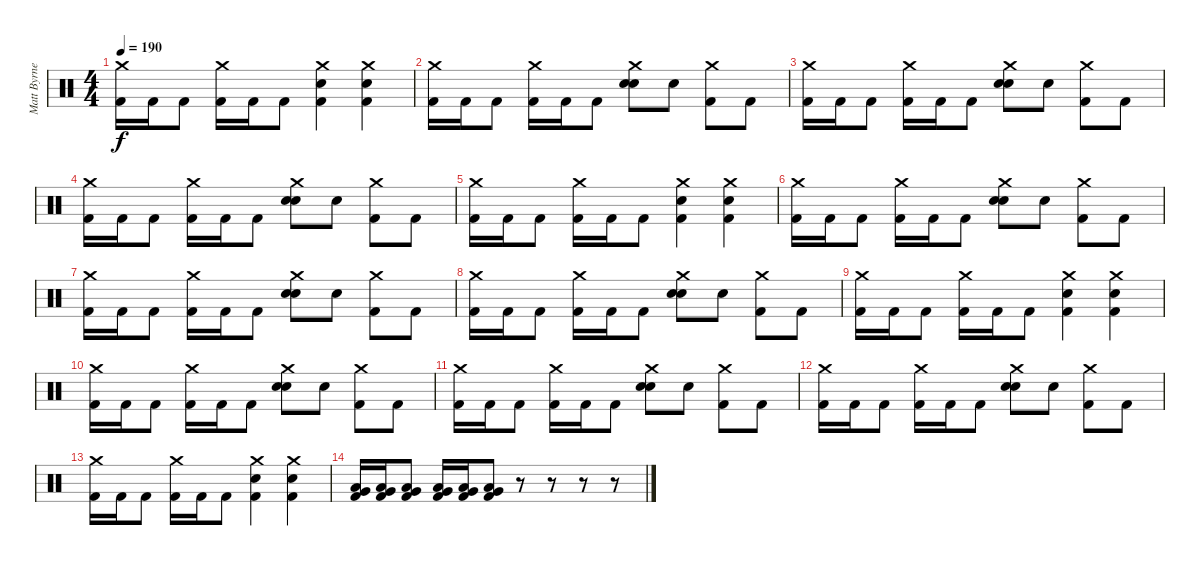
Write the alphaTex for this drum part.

\track ("Matt Byrne (Drums)" "Matt Byrne") {instrument percussion}
\staff {score}
\articulation defaults
\ts (4 4)
\tempo 190
\clef neutral
\ks c
("Crash medium (hit)" "Kick (hit) 2").16{dy f} "Kick (hit) 2".16 "Kick (hit) 2".8 ("Crash medium (hit)" "Kick (hit) 2").16 "Kick (hit) 2".16 "Kick (hit) 2".8 ("Crash medium (hit)" "Snare (hit) 2" "Kick (hit) 2").4 ("Crash medium (hit)" "Snare (hit) 2" "Kick (hit) 2").4 |
("Crash medium (hit)" "Kick (hit) 2").16 "Kick (hit) 2".16 "Kick (hit) 2".8 ("Crash medium (hit)" "Kick (hit) 2").16 "Kick (hit) 2".16 "Kick (hit) 2".8 ("Crash medium (hit)" "Snare (hit) 2" "Snare (hit)"{x}).8 "Snare (hit)"{x}.8 ("Crash medium (hit)" "Kick (hit) 2").8 "Kick (hit) 2".8 |
("Crash medium (hit)" "Kick (hit) 2").16 "Kick (hit) 2".16 "Kick (hit) 2".8 ("Crash medium (hit)" "Kick (hit) 2").16 "Kick (hit) 2".16 "Kick (hit) 2".8 ("Crash medium (hit)" "Snare (hit) 2" "Snare (hit)"{x}).8 "Snare (hit)"{x}.8 ("Crash medium (hit)" "Kick (hit) 2").8 "Kick (hit) 2".8 |
("Crash medium (hit)" "Kick (hit) 2").16 "Kick (hit) 2".16 "Kick (hit) 2".8 ("Crash medium (hit)" "Kick (hit) 2").16 "Kick (hit) 2".16 "Kick (hit) 2".8 ("Crash medium (hit)" "Snare (hit) 2" "Snare (hit)"{x}).8 "Snare (hit)"{x}.8 ("Crash medium (hit)" "Kick (hit) 2").8 "Kick (hit) 2".8 |
("Crash medium (hit)" "Kick (hit) 2").16 "Kick (hit) 2".16 "Kick (hit) 2".8 ("Crash medium (hit)" "Kick (hit) 2").16 "Kick (hit) 2".16 "Kick (hit) 2".8 ("Crash medium (hit)" "Snare (hit) 2" "Kick (hit) 2").4 ("Crash medium (hit)" "Snare (hit) 2" "Kick (hit) 2").4 |
("Crash medium (hit)" "Kick (hit) 2").16 "Kick (hit) 2".16 "Kick (hit) 2".8 ("Crash medium (hit)" "Kick (hit) 2").16 "Kick (hit) 2".16 "Kick (hit) 2".8 ("Crash medium (hit)" "Snare (hit) 2" "Snare (hit)"{x}).8 "Snare (hit)"{x}.8 ("Crash medium (hit)" "Kick (hit) 2").8 "Kick (hit) 2".8 |
("Crash medium (hit)" "Kick (hit) 2").16 "Kick (hit) 2".16 "Kick (hit) 2".8 ("Crash medium (hit)" "Kick (hit) 2").16 "Kick (hit) 2".16 "Kick (hit) 2".8 ("Crash medium (hit)" "Snare (hit) 2" "Snare (hit)"{x}).8 "Snare (hit)"{x}.8 ("Crash medium (hit)" "Kick (hit) 2").8 "Kick (hit) 2".8 |
("Crash medium (hit)" "Kick (hit) 2").16 "Kick (hit) 2".16 "Kick (hit) 2".8 ("Crash medium (hit)" "Kick (hit) 2").16 "Kick (hit) 2".16 "Kick (hit) 2".8 ("Crash medium (hit)" "Snare (hit) 2" "Snare (hit)"{x}).8 "Snare (hit)"{x}.8 ("Crash medium (hit)" "Kick (hit) 2").8 "Kick (hit) 2".8 |
("Crash medium (hit)" "Kick (hit) 2").16 "Kick (hit) 2".16 "Kick (hit) 2".8 ("Crash medium (hit)" "Kick (hit) 2").16 "Kick (hit) 2".16 "Kick (hit) 2".8 ("Crash medium (hit)" "Snare (hit) 2" "Kick (hit) 2").4 ("Crash medium (hit)" "Snare (hit) 2" "Kick (hit) 2").4 |
("Crash medium (hit)" "Kick (hit) 2").16 "Kick (hit) 2".16 "Kick (hit) 2".8 ("Crash medium (hit)" "Kick (hit) 2").16 "Kick (hit) 2".16 "Kick (hit) 2".8 ("Crash medium (hit)" "Snare (hit) 2" "Snare (hit)"{x}).8 "Snare (hit)"{x}.8 ("Crash medium (hit)" "Kick (hit) 2").8 "Kick (hit) 2".8 |
("Crash medium (hit)" "Kick (hit) 2").16 "Kick (hit) 2".16 "Kick (hit) 2".8 ("Crash medium (hit)" "Kick (hit) 2").16 "Kick (hit) 2".16 "Kick (hit) 2".8 ("Crash medium (hit)" "Snare (hit) 2" "Snare (hit)"{x}).8 "Snare (hit)"{x}.8 ("Crash medium (hit)" "Kick (hit) 2").8 "Kick (hit) 2".8 |
("Crash medium (hit)" "Kick (hit) 2").16 "Kick (hit) 2".16 "Kick (hit) 2".8 ("Crash medium (hit)" "Kick (hit) 2").16 "Kick (hit) 2".16 "Kick (hit) 2".8 ("Crash medium (hit)" "Snare (hit) 2" "Snare (hit)"{x}).8 "Snare (hit)"{x}.8 ("Crash medium (hit)" "Kick (hit) 2").8 "Kick (hit) 2".8 |
("Crash medium (hit)" "Kick (hit) 2").16 "Kick (hit) 2".16 "Kick (hit) 2".8 ("Crash medium (hit)" "Kick (hit) 2").16 "Kick (hit) 2".16 "Kick (hit) 2".8 ("Crash medium (hit)" "Snare (hit) 2" "Kick (hit) 2").4 ("Crash medium (hit)" "Snare (hit) 2" "Kick (hit) 2").4 |
("Very Low Tom (hit)" "Low Tom (hit)" "Kick (hit) 2").16 ("Very Low Tom (hit)" "Low Tom (hit)" "Kick (hit) 2").16 ("Very Low Tom (hit)" "Low Tom (hit)" "Kick (hit) 2").8 ("Very Low Tom (hit)" "Low Tom (hit)" "Kick (hit) 2").16 ("Very Low Tom (hit)" "Low Tom (hit)" "Kick (hit) 2").16 ("Very Low Tom (hit)" "Low Tom (hit)" "Kick (hit) 2").8 r.8 r.8 r.8 r.8
